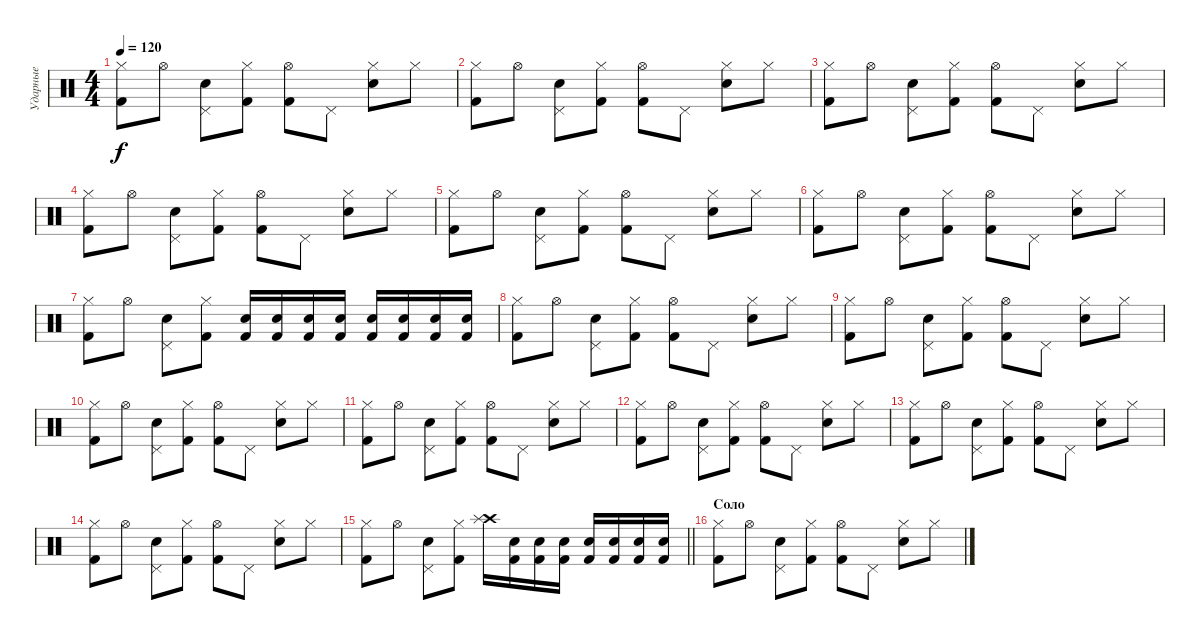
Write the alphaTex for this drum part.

\track ("Ударные" "Ударные") {instrument percussion}
\staff {score}
\articulation defaults
\ts (4 4)
\tempo 120
\clef neutral
\ks c
("Hi-Hat (closed)" "Kick (hit) 2").8{dy f} "Hi-Hat (open)".8 ("Pedal Hi-Hat (hit)" "Snare (hit) 2").8 ("Hi-Hat (closed)" "Kick (hit) 2").8 ("Hi-Hat (open)" "Kick (hit) 2").8 "Pedal Hi-Hat (hit)".8 ("Hi-Hat (closed)" "Snare (hit) 2").8 "Hi-Hat (closed)".8 |
("Hi-Hat (closed)" "Kick (hit) 2").8 "Hi-Hat (open)".8 ("Pedal Hi-Hat (hit)" "Snare (hit) 2").8 ("Hi-Hat (closed)" "Kick (hit) 2").8 ("Hi-Hat (open)" "Kick (hit) 2").8 "Pedal Hi-Hat (hit)".8 ("Hi-Hat (closed)" "Snare (hit) 2").8 "Hi-Hat (closed)".8 |
("Hi-Hat (closed)" "Kick (hit) 2").8 "Hi-Hat (open)".8 ("Pedal Hi-Hat (hit)" "Snare (hit) 2").8 ("Hi-Hat (closed)" "Kick (hit) 2").8 ("Hi-Hat (open)" "Kick (hit) 2").8 "Pedal Hi-Hat (hit)".8 ("Hi-Hat (closed)" "Snare (hit) 2").8 "Hi-Hat (closed)".8 |
("Hi-Hat (closed)" "Kick (hit) 2").8 "Hi-Hat (open)".8 ("Pedal Hi-Hat (hit)" "Snare (hit) 2").8 ("Hi-Hat (closed)" "Kick (hit) 2").8 ("Hi-Hat (open)" "Kick (hit) 2").8 "Pedal Hi-Hat (hit)".8 ("Hi-Hat (closed)" "Snare (hit) 2").8 "Hi-Hat (closed)".8 |
("Hi-Hat (closed)" "Kick (hit) 2").8 "Hi-Hat (open)".8 ("Pedal Hi-Hat (hit)" "Snare (hit) 2").8 ("Hi-Hat (closed)" "Kick (hit) 2").8 ("Hi-Hat (open)" "Kick (hit) 2").8 "Pedal Hi-Hat (hit)".8 ("Hi-Hat (closed)" "Snare (hit) 2").8 "Hi-Hat (closed)".8 |
("Hi-Hat (closed)" "Kick (hit) 2").8 "Hi-Hat (open)".8 ("Pedal Hi-Hat (hit)" "Snare (hit) 2").8 ("Hi-Hat (closed)" "Kick (hit) 2").8 ("Hi-Hat (open)" "Kick (hit) 2").8 "Pedal Hi-Hat (hit)".8 ("Hi-Hat (closed)" "Snare (hit) 2").8 "Hi-Hat (closed)".8 |
("Hi-Hat (closed)" "Kick (hit) 2").8 "Hi-Hat (open)".8 ("Pedal Hi-Hat (hit)" "Snare (hit) 2").8 ("Hi-Hat (closed)" "Kick (hit) 2").8 ("Snare (hit) 2" "Kick (hit) 2").16 ("Snare (hit) 2" "Kick (hit) 2").16 ("Snare (hit) 2" "Kick (hit) 2").16 ("Snare (hit) 2" "Kick (hit) 2").16 ("Snare (hit) 2" "Kick (hit) 2").16 ("Snare (hit) 2" "Kick (hit) 2").16 ("Snare (hit) 2" "Kick (hit) 2").16 ("Snare (hit) 2" "Kick (hit) 2").16 |
("Hi-Hat (closed)" "Kick (hit) 2").8 "Hi-Hat (open)".8 ("Pedal Hi-Hat (hit)" "Snare (hit) 2").8 ("Hi-Hat (closed)" "Kick (hit) 2").8 ("Hi-Hat (open)" "Kick (hit) 2").8 "Pedal Hi-Hat (hit)".8 ("Hi-Hat (closed)" "Snare (hit) 2").8 "Hi-Hat (closed)".8 |
("Hi-Hat (closed)" "Kick (hit) 2").8 "Hi-Hat (open)".8 ("Pedal Hi-Hat (hit)" "Snare (hit) 2").8 ("Hi-Hat (closed)" "Kick (hit) 2").8 ("Hi-Hat (open)" "Kick (hit) 2").8 "Pedal Hi-Hat (hit)".8 ("Hi-Hat (closed)" "Snare (hit) 2").8 "Hi-Hat (closed)".8 |
("Hi-Hat (closed)" "Kick (hit) 2").8 "Hi-Hat (open)".8 ("Pedal Hi-Hat (hit)" "Snare (hit) 2").8 ("Hi-Hat (closed)" "Kick (hit) 2").8 ("Hi-Hat (open)" "Kick (hit) 2").8 "Pedal Hi-Hat (hit)".8 ("Hi-Hat (closed)" "Snare (hit) 2").8 "Hi-Hat (closed)".8 |
("Hi-Hat (closed)" "Kick (hit) 2").8 "Hi-Hat (open)".8 ("Pedal Hi-Hat (hit)" "Snare (hit) 2").8 ("Hi-Hat (closed)" "Kick (hit) 2").8 ("Hi-Hat (open)" "Kick (hit) 2").8 "Pedal Hi-Hat (hit)".8 ("Hi-Hat (closed)" "Snare (hit) 2").8 "Hi-Hat (closed)".8 |
("Hi-Hat (closed)" "Kick (hit) 2").8 "Hi-Hat (open)".8 ("Pedal Hi-Hat (hit)" "Snare (hit) 2").8 ("Hi-Hat (closed)" "Kick (hit) 2").8 ("Hi-Hat (open)" "Kick (hit) 2").8 "Pedal Hi-Hat (hit)".8 ("Hi-Hat (closed)" "Snare (hit) 2").8 "Hi-Hat (closed)".8 |
("Hi-Hat (closed)" "Kick (hit) 2").8 "Hi-Hat (open)".8 ("Pedal Hi-Hat (hit)" "Snare (hit) 2").8 ("Hi-Hat (closed)" "Kick (hit) 2").8 ("Hi-Hat (open)" "Kick (hit) 2").8 "Pedal Hi-Hat (hit)".8 ("Hi-Hat (closed)" "Snare (hit) 2").8 "Hi-Hat (closed)".8 |
("Hi-Hat (closed)" "Kick (hit) 2").8 "Hi-Hat (open)".8 ("Pedal Hi-Hat (hit)" "Snare (hit) 2").8 ("Hi-Hat (closed)" "Kick (hit) 2").8 ("Hi-Hat (open)" "Kick (hit) 2").8 "Pedal Hi-Hat (hit)".8 ("Hi-Hat (closed)" "Snare (hit) 2").8 "Hi-Hat (closed)".8 |
\barLineRight lightlight
("Hi-Hat (closed)" "Kick (hit) 2").8 "Hi-Hat (open)".8 ("Pedal Hi-Hat (hit)" "Snare (hit) 2").8 ("Hi-Hat (closed)" "Kick (hit) 2").8 ("Crash high (hit)" "Splash (hit)").16 ("Snare (hit) 2" "Kick (hit) 2").16 ("Snare (hit) 2" "Kick (hit) 2").16 ("Snare (hit) 2" "Kick (hit) 2").16 ("Snare (hit) 2" "Kick (hit) 2").16 ("Snare (hit) 2" "Kick (hit) 2").16 ("Snare (hit) 2" "Kick (hit) 2").16 ("Snare (hit) 2" "Kick (hit) 2").16 |
\section ("" "Соло")
("Hi-Hat (closed)" "Kick (hit) 2").8 "Hi-Hat (open)".8 ("Pedal Hi-Hat (hit)" "Snare (hit) 2").8 ("Hi-Hat (closed)" "Kick (hit) 2").8 ("Hi-Hat (open)" "Kick (hit) 2").8 "Pedal Hi-Hat (hit)".8 ("Hi-Hat (closed)" "Snare (hit) 2").8 "Hi-Hat (closed)".8
